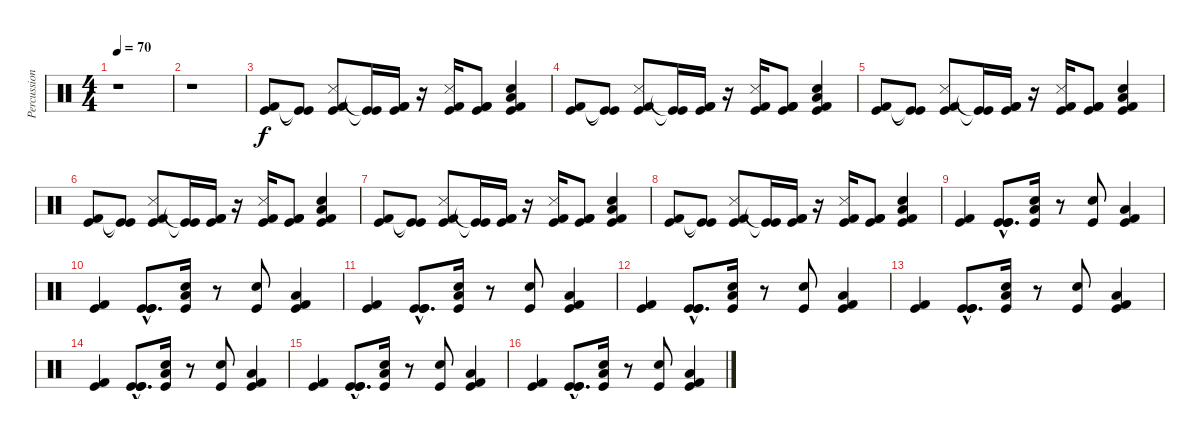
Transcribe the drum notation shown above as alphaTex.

\track ("Percussion" "Percussion") {instrument percussion}
\staff {score}
\articulation defaults
\ts (4 4)
\tempo 70
\clef neutral
\ks c
r.1{dy f} |
r.1 |
("Kick (hit)" "Kick (hit) 2").8 ("Kick (hit)"{t} "Kick (hit)"{t}).8 ("Metronome (hit)" "Kick (hit)" "Kick (hit) 2").8 ("Kick (hit)"{t} "Kick (hit)"{t}).16 ("Kick (hit)" "Kick (hit) 2" "Kick (hit) 2").16 r.16 ("Metronome (hit)" "Kick (hit)" "Kick (hit) 2").16 ("Kick (hit)" "Kick (hit) 2" "Kick (hit) 2").8 ("Snare (hit) 2" "Low Floor Tom (hit)" "Kick (hit)" "Kick (hit) 2").4 |
("Kick (hit)" "Kick (hit) 2").8 ("Kick (hit)"{t} "Kick (hit)"{t}).8 ("Metronome (hit)" "Kick (hit)" "Kick (hit) 2").8 ("Kick (hit)"{t} "Kick (hit)"{t}).16 ("Kick (hit)" "Kick (hit) 2" "Kick (hit) 2").16 r.16 ("Metronome (hit)" "Kick (hit)" "Kick (hit) 2").16 ("Kick (hit)" "Kick (hit) 2" "Kick (hit) 2").8 ("Snare (hit) 2" "Low Floor Tom (hit)" "Kick (hit)" "Kick (hit) 2").4 |
("Kick (hit)" "Kick (hit) 2").8 ("Kick (hit)"{t} "Kick (hit)"{t}).8 ("Metronome (hit)" "Kick (hit)" "Kick (hit) 2").8 ("Kick (hit)"{t} "Kick (hit)"{t}).16 ("Kick (hit)" "Kick (hit) 2" "Kick (hit) 2").16 r.16 ("Metronome (hit)" "Kick (hit)" "Kick (hit) 2").16 ("Kick (hit)" "Kick (hit) 2" "Kick (hit) 2").8 ("Snare (hit) 2" "Low Floor Tom (hit)" "Kick (hit)" "Kick (hit) 2").4 |
("Kick (hit)" "Kick (hit) 2").8 ("Kick (hit)"{t} "Kick (hit)"{t}).8 ("Metronome (hit)" "Kick (hit)" "Kick (hit) 2").8 ("Kick (hit)"{t} "Kick (hit)"{t}).16 ("Kick (hit)" "Kick (hit) 2" "Kick (hit) 2").16 r.16 ("Metronome (hit)" "Kick (hit)" "Kick (hit) 2").16 ("Kick (hit)" "Kick (hit) 2" "Kick (hit) 2").8 ("Snare (hit) 2" "Low Floor Tom (hit)" "Kick (hit)" "Kick (hit) 2").4 |
("Kick (hit)" "Kick (hit) 2").8 ("Kick (hit)"{t} "Kick (hit)"{t}).8 ("Metronome (hit)" "Kick (hit)" "Kick (hit) 2").8 ("Kick (hit)"{t} "Kick (hit)"{t}).16 ("Kick (hit)" "Kick (hit) 2" "Kick (hit) 2").16 r.16 ("Metronome (hit)" "Kick (hit)" "Kick (hit) 2").16 ("Kick (hit)" "Kick (hit) 2" "Kick (hit) 2").8 ("Snare (hit) 2" "Low Floor Tom (hit)" "Kick (hit)" "Kick (hit) 2").4 |
("Kick (hit)" "Kick (hit) 2").8 ("Kick (hit)"{t} "Kick (hit)"{t}).8 ("Metronome (hit)" "Kick (hit)" "Kick (hit) 2").8 ("Kick (hit)"{t} "Kick (hit)"{t}).16 ("Kick (hit)" "Kick (hit) 2" "Kick (hit) 2").16 r.16 ("Metronome (hit)" "Kick (hit)" "Kick (hit) 2").16 ("Kick (hit)" "Kick (hit) 2" "Kick (hit) 2").8 ("Snare (hit) 2" "Low Floor Tom (hit)" "Kick (hit)" "Kick (hit) 2").4 |
("Kick (hit)" "Kick (hit) 2").4 ("Kick (hit)"{hac} "Kick (hit)"{hac} "Kick (hit)"{hac}).8{d} ("Snare (hit) 2" "Low Floor Tom (hit)" "Kick (hit)").16 r.8 ("Snare (hit) 2" "Kick (hit)").8 ("Low Floor Tom (hit)" "Kick (hit) 2" "Kick (hit)").4 |
("Kick (hit)" "Kick (hit) 2").4 ("Kick (hit)"{hac} "Kick (hit)"{hac} "Kick (hit)"{hac}).8{d} ("Snare (hit) 2" "Low Floor Tom (hit)" "Kick (hit)").16 r.8 ("Snare (hit) 2" "Kick (hit)").8 ("Low Floor Tom (hit)" "Kick (hit) 2" "Kick (hit)").4 |
("Kick (hit)" "Kick (hit) 2").4 ("Kick (hit)"{hac} "Kick (hit)"{hac} "Kick (hit)"{hac}).8{d} ("Snare (hit) 2" "Low Floor Tom (hit)" "Kick (hit)").16 r.8 ("Snare (hit) 2" "Kick (hit)").8 ("Low Floor Tom (hit)" "Kick (hit) 2" "Kick (hit)").4 |
("Kick (hit)" "Kick (hit) 2").4 ("Kick (hit)"{hac} "Kick (hit)"{hac} "Kick (hit)"{hac}).8{d} ("Snare (hit) 2" "Low Floor Tom (hit)" "Kick (hit)").16 r.8 ("Snare (hit) 2" "Kick (hit)").8 ("Low Floor Tom (hit)" "Kick (hit) 2" "Kick (hit)").4 |
("Kick (hit)" "Kick (hit) 2").4 ("Kick (hit)"{hac} "Kick (hit)"{hac} "Kick (hit)"{hac}).8{d} ("Snare (hit) 2" "Low Floor Tom (hit)" "Kick (hit)").16 r.8 ("Snare (hit) 2" "Kick (hit)").8 ("Low Floor Tom (hit)" "Kick (hit) 2" "Kick (hit)").4 |
("Kick (hit)" "Kick (hit) 2").4 ("Kick (hit)"{hac} "Kick (hit)"{hac} "Kick (hit)"{hac}).8{d} ("Snare (hit) 2" "Low Floor Tom (hit)" "Kick (hit)").16 r.8 ("Snare (hit) 2" "Kick (hit)").8 ("Low Floor Tom (hit)" "Kick (hit) 2" "Kick (hit)").4 |
("Kick (hit)" "Kick (hit) 2").4 ("Kick (hit)"{hac} "Kick (hit)"{hac} "Kick (hit)"{hac}).8{d} ("Snare (hit) 2" "Low Floor Tom (hit)" "Kick (hit)").16 r.8 ("Snare (hit) 2" "Kick (hit)").8 ("Low Floor Tom (hit)" "Kick (hit) 2" "Kick (hit)").4 |
("Kick (hit)" "Kick (hit) 2").4 ("Kick (hit)"{hac} "Kick (hit)"{hac} "Kick (hit)"{hac}).8{d} ("Snare (hit) 2" "Low Floor Tom (hit)" "Kick (hit)").16 r.8 ("Snare (hit) 2" "Kick (hit)").8 ("Low Floor Tom (hit)" "Kick (hit) 2" "Kick (hit)").4
